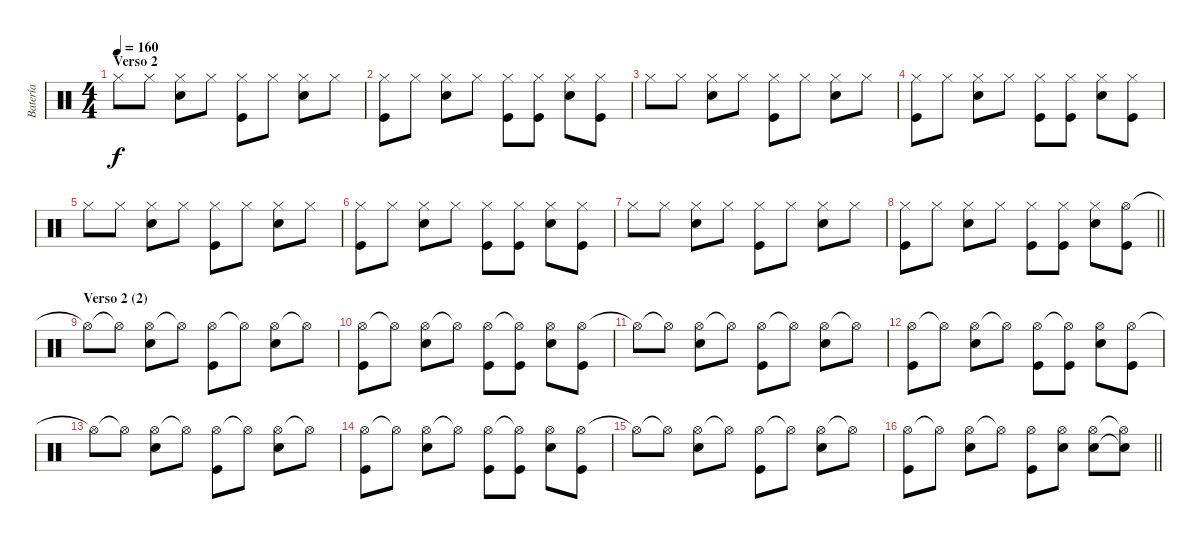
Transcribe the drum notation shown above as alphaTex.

\track ("Batería" "Batería") {instrument percussion}
\staff {score}
\articulation defaults
\ts (4 4)
\section ("" "Verso 2")
\tempo 160
\clef neutral
\ks c "Hi-Hat (closed)".8{dy f} "Hi-Hat (closed)".8
("Hi-Hat (closed)" "Electric Snare (hit)").8 "Hi-Hat (closed)".8 ("Hi-Hat (closed)" "Kick (hit)").8 "Hi-Hat (closed)".8 ("Hi-Hat (closed)" "Electric Snare (hit)").8 "Hi-Hat (closed)".8 |
("Hi-Hat (closed)" "Kick (hit)").8 "Hi-Hat (closed)".8 ("Hi-Hat (closed)" "Electric Snare (hit)").8 "Hi-Hat (closed)".8 ("Hi-Hat (closed)" "Kick (hit)").8 ("Hi-Hat (closed)" "Kick (hit)").8 ("Hi-Hat (closed)" "Electric Snare (hit)").8 ("Hi-Hat (closed)" "Kick (hit)").8 |
"Hi-Hat (closed)".8 "Hi-Hat (closed)".8 ("Hi-Hat (closed)" "Electric Snare (hit)").8 "Hi-Hat (closed)".8 ("Hi-Hat (closed)" "Kick (hit)").8 "Hi-Hat (closed)".8 ("Hi-Hat (closed)" "Electric Snare (hit)").8 "Hi-Hat (closed)".8 |
("Hi-Hat (closed)" "Kick (hit)").8 "Hi-Hat (closed)".8 ("Hi-Hat (closed)" "Electric Snare (hit)").8 "Hi-Hat (closed)".8 ("Hi-Hat (closed)" "Kick (hit)").8 ("Hi-Hat (closed)" "Kick (hit)").8 ("Hi-Hat (closed)" "Electric Snare (hit)").8 ("Hi-Hat (closed)" "Kick (hit)").8 |
"Hi-Hat (closed)".8 "Hi-Hat (closed)".8 ("Hi-Hat (closed)" "Electric Snare (hit)").8 "Hi-Hat (closed)".8 ("Hi-Hat (closed)" "Kick (hit)").8 "Hi-Hat (closed)".8 ("Hi-Hat (closed)" "Electric Snare (hit)").8 "Hi-Hat (closed)".8 |
("Hi-Hat (closed)" "Kick (hit)").8 "Hi-Hat (closed)".8 ("Hi-Hat (closed)" "Electric Snare (hit)").8 "Hi-Hat (closed)".8 ("Hi-Hat (closed)" "Kick (hit)").8 ("Hi-Hat (closed)" "Kick (hit)").8 ("Hi-Hat (closed)" "Electric Snare (hit)").8 ("Hi-Hat (closed)" "Kick (hit)").8 |
"Hi-Hat (closed)".8 "Hi-Hat (closed)".8 ("Hi-Hat (closed)" "Electric Snare (hit)").8 "Hi-Hat (closed)".8 ("Hi-Hat (closed)" "Kick (hit)").8 "Hi-Hat (closed)".8 ("Hi-Hat (closed)" "Electric Snare (hit)").8 "Hi-Hat (closed)".8 |
\barLineRight lightlight
("Hi-Hat (closed)" "Kick (hit)").8 "Hi-Hat (closed)".8 ("Hi-Hat (closed)" "Electric Snare (hit)").8 "Hi-Hat (closed)".8 ("Hi-Hat (closed)" "Kick (hit)").8 ("Hi-Hat (closed)" "Kick (hit)").8 ("Hi-Hat (closed)" "Electric Snare (hit)").8 ("Hi-Hat (open)" "Kick (hit)").8 |
\section ("" "Verso 2 (2)")
"Hi-Hat (open)"{t}.8 "Hi-Hat (open)"{t}.8 ("Hi-Hat (open)" "Electric Snare (hit)").8 "Hi-Hat (open)"{t}.8 ("Hi-Hat (open)" "Kick (hit)").8 "Hi-Hat (open)"{t}.8 ("Hi-Hat (open)" "Electric Snare (hit)").8 "Hi-Hat (open)"{t}.8 |
("Hi-Hat (open)" "Kick (hit)").8 "Hi-Hat (open)"{t}.8 ("Hi-Hat (open)" "Electric Snare (hit)").8 "Hi-Hat (open)"{t}.8 ("Hi-Hat (open)" "Kick (hit)").8 ("Hi-Hat (open)"{t} "Kick (hit)").8 ("Hi-Hat (open)" "Electric Snare (hit)").8 ("Hi-Hat (open)" "Kick (hit)").8 |
"Hi-Hat (open)"{t}.8 "Hi-Hat (open)"{t}.8 ("Hi-Hat (open)" "Electric Snare (hit)").8 "Hi-Hat (open)"{t}.8 ("Hi-Hat (open)" "Kick (hit)").8 "Hi-Hat (open)"{t}.8 ("Hi-Hat (open)" "Electric Snare (hit)").8 "Hi-Hat (open)"{t}.8 |
("Hi-Hat (open)" "Kick (hit)").8 "Hi-Hat (open)"{t}.8 ("Hi-Hat (open)" "Electric Snare (hit)").8 "Hi-Hat (open)"{t}.8 ("Hi-Hat (open)" "Kick (hit)").8 ("Hi-Hat (open)"{t} "Kick (hit)").8 ("Hi-Hat (open)" "Electric Snare (hit)").8 ("Hi-Hat (open)" "Kick (hit)").8 |
"Hi-Hat (open)"{t}.8 "Hi-Hat (open)"{t}.8 ("Hi-Hat (open)" "Electric Snare (hit)").8 "Hi-Hat (open)"{t}.8 ("Hi-Hat (open)" "Kick (hit)").8 "Hi-Hat (open)"{t}.8 ("Hi-Hat (open)" "Electric Snare (hit)").8 "Hi-Hat (open)"{t}.8 |
("Hi-Hat (open)" "Kick (hit)").8 "Hi-Hat (open)"{t}.8 ("Hi-Hat (open)" "Electric Snare (hit)").8 "Hi-Hat (open)"{t}.8 ("Hi-Hat (open)" "Kick (hit)").8 ("Hi-Hat (open)"{t} "Kick (hit)").8 ("Hi-Hat (open)" "Electric Snare (hit)").8 ("Hi-Hat (open)" "Kick (hit)").8 |
"Hi-Hat (open)"{t}.8 "Hi-Hat (open)"{t}.8 ("Hi-Hat (open)" "Electric Snare (hit)").8 "Hi-Hat (open)"{t}.8 ("Hi-Hat (open)" "Kick (hit)").8 "Hi-Hat (open)"{t}.8 ("Hi-Hat (open)" "Electric Snare (hit)").8 "Hi-Hat (open)"{t}.8 |
\barLineRight lightlight
("Hi-Hat (open)" "Kick (hit)").8 "Hi-Hat (open)"{t}.8 ("Hi-Hat (open)" "Electric Snare (hit)").8 "Hi-Hat (open)"{t}.8 ("Hi-Hat (open)" "Kick (hit)").8 ("Hi-Hat (open)" "Electric Snare (hit)").8 ("Hi-Hat (open)" "Electric Snare (hit)").8 ("Hi-Hat (open)"{t} "Electric Snare (hit)"{t}).8
